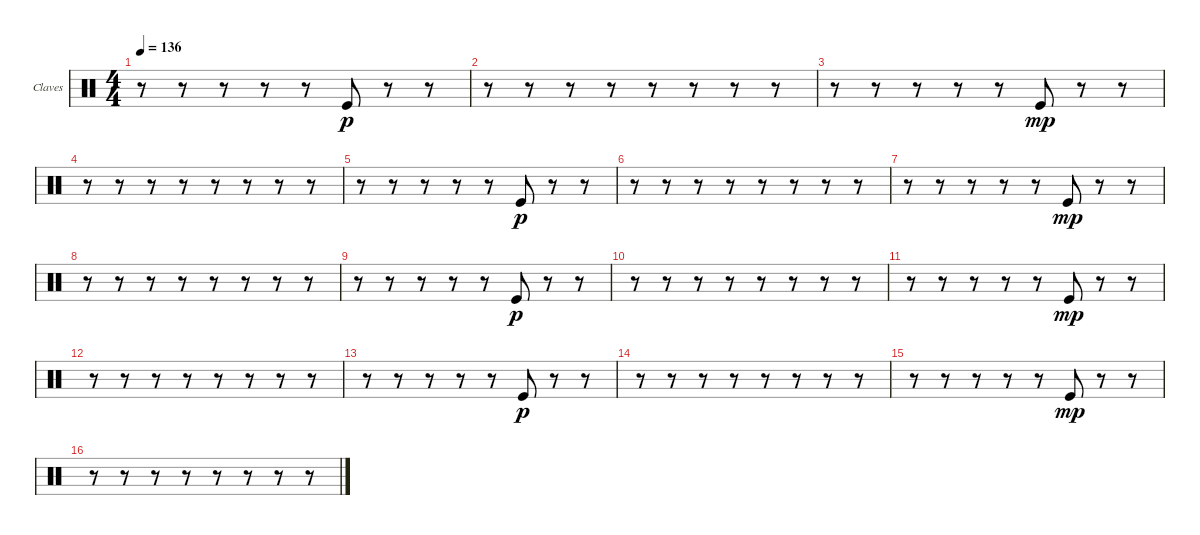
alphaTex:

\bracketExtendMode groupsimilarinstruments
\firstSystemTrackNameOrientation horizontal
\otherSystemsTrackNameOrientation horizontal
\track ("Claves" "Claves") {instrument percussion}
\staff {score}
\articulation defaults
\ts (4 4)
\tempo 136
\clef neutral
\ks c
r.8{dy mp} r.8 r.8 r.8 r.8 "Kick (hit)".8{dy p} r.8 r.8 |
r.8 r.8 r.8 r.8 r.8 r.8 r.8 r.8 |
r.8 r.8 r.8 r.8 r.8 "Kick (hit)".8{dy mp} r.8 r.8 |
r.8 r.8 r.8 r.8 r.8 r.8 r.8 r.8 |
r.8 r.8 r.8 r.8 r.8 "Kick (hit)".8{dy p} r.8 r.8 |
r.8 r.8 r.8 r.8 r.8 r.8 r.8 r.8 |
r.8 r.8 r.8 r.8 r.8 "Kick (hit)".8{dy mp} r.8 r.8 |
r.8 r.8 r.8 r.8 r.8 r.8 r.8 r.8 |
r.8 r.8 r.8 r.8 r.8 "Kick (hit)".8{dy p} r.8 r.8 |
r.8 r.8 r.8 r.8 r.8 r.8 r.8 r.8 |
r.8 r.8 r.8 r.8 r.8 "Kick (hit)".8{dy mp} r.8 r.8 |
r.8 r.8 r.8 r.8 r.8 r.8 r.8 r.8 |
r.8 r.8 r.8 r.8 r.8 "Kick (hit)".8{dy p} r.8 r.8 |
r.8 r.8 r.8 r.8 r.8 r.8 r.8 r.8 |
r.8 r.8 r.8 r.8 r.8 "Kick (hit)".8{dy mp} r.8 r.8 |
r.8 r.8 r.8 r.8 r.8 r.8 r.8 r.8
